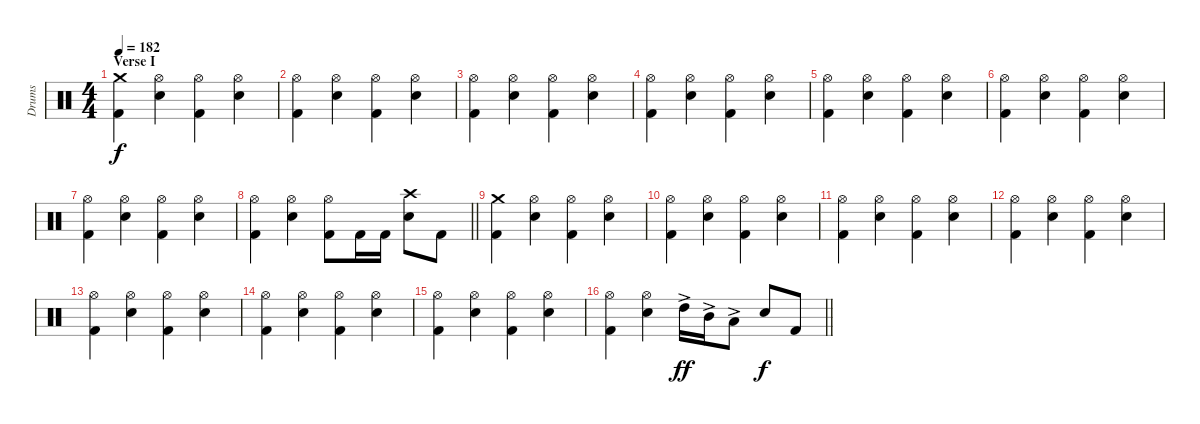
\track ("Drums" "Drums") {instrument percussion}
\staff {score}
\articulation defaults
\ts (4 4)
\section ("" "Verse I")
\tempo 182
\clef neutral
\ks c
("Kick (hit) 2" "Crash medium (hit)").4{dy f} ("Snare (hit) 2" "Hi-Hat (open)").4 ("Kick (hit) 2" "Hi-Hat (open)").4 ("Snare (hit) 2" "Hi-Hat (open)").4 |
("Kick (hit) 2" "Hi-Hat (open)").4 ("Snare (hit) 2" "Hi-Hat (open)").4 ("Kick (hit) 2" "Hi-Hat (open)").4 ("Snare (hit) 2" "Hi-Hat (open)").4 |
("Kick (hit) 2" "Hi-Hat (open)").4 ("Snare (hit) 2" "Hi-Hat (open)").4 ("Kick (hit) 2" "Hi-Hat (open)").4 ("Snare (hit) 2" "Hi-Hat (open)").4 |
("Kick (hit) 2" "Hi-Hat (open)").4 ("Snare (hit) 2" "Hi-Hat (open)").4 ("Kick (hit) 2" "Hi-Hat (open)").4 ("Snare (hit) 2" "Hi-Hat (open)").4 |
("Kick (hit) 2" "Hi-Hat (open)").4 ("Snare (hit) 2" "Hi-Hat (open)").4 ("Kick (hit) 2" "Hi-Hat (open)").4 ("Snare (hit) 2" "Hi-Hat (open)").4 |
("Kick (hit) 2" "Hi-Hat (open)").4 ("Snare (hit) 2" "Hi-Hat (open)").4 ("Kick (hit) 2" "Hi-Hat (open)").4 ("Snare (hit) 2" "Hi-Hat (open)").4 |
("Kick (hit) 2" "Hi-Hat (open)").4 ("Snare (hit) 2" "Hi-Hat (open)").4 ("Kick (hit) 2" "Hi-Hat (open)").4 ("Snare (hit) 2" "Hi-Hat (open)").4 |
\barLineRight lightlight
("Kick (hit) 2" "Hi-Hat (open)").4 ("Snare (hit) 2" "Hi-Hat (open)").4 ("Kick (hit) 2" "Hi-Hat (open)").8 "Kick (hit) 2".16 "Kick (hit) 2".16 ("Snare (hit) 2" "Crash high (hit)").8 "Kick (hit) 2".8 |
\section ("" "")
("Kick (hit) 2" "Crash medium (hit)").4 ("Snare (hit) 2" "Hi-Hat (open)").4 ("Kick (hit) 2" "Hi-Hat (open)").4 ("Snare (hit) 2" "Hi-Hat (open)").4 |
("Kick (hit) 2" "Hi-Hat (open)").4 ("Snare (hit) 2" "Hi-Hat (open)").4 ("Kick (hit) 2" "Hi-Hat (open)").4 ("Snare (hit) 2" "Hi-Hat (open)").4 |
("Kick (hit) 2" "Hi-Hat (open)").4 ("Snare (hit) 2" "Hi-Hat (open)").4 ("Kick (hit) 2" "Hi-Hat (open)").4 ("Snare (hit) 2" "Hi-Hat (open)").4 |
("Kick (hit) 2" "Hi-Hat (open)").4 ("Snare (hit) 2" "Hi-Hat (open)").4 ("Kick (hit) 2" "Hi-Hat (open)").4 ("Snare (hit) 2" "Hi-Hat (open)").4 |
("Kick (hit) 2" "Hi-Hat (open)").4 ("Snare (hit) 2" "Hi-Hat (open)").4 ("Kick (hit) 2" "Hi-Hat (open)").4 ("Snare (hit) 2" "Hi-Hat (open)").4 |
("Kick (hit) 2" "Hi-Hat (open)").4 ("Snare (hit) 2" "Hi-Hat (open)").4 ("Kick (hit) 2" "Hi-Hat (open)").4 ("Snare (hit) 2" "Hi-Hat (open)").4 |
("Kick (hit) 2" "Hi-Hat (open)").4 ("Snare (hit) 2" "Hi-Hat (open)").4 ("Kick (hit) 2" "Hi-Hat (open)").4 ("Snare (hit) 2" "Hi-Hat (open)").4 |
\barLineRight lightlight
("Kick (hit) 2" "Hi-Hat (open)").4 ("Snare (hit) 2" "Hi-Hat (open)").4 "High Tom (hit)"{ac}.16{dy ff} "Mid Tom (hit)"{ac}.16 "Low Tom (hit)"{ac}.8 "Snare (hit) 2".8{dy f} "Kick (hit) 2".8
